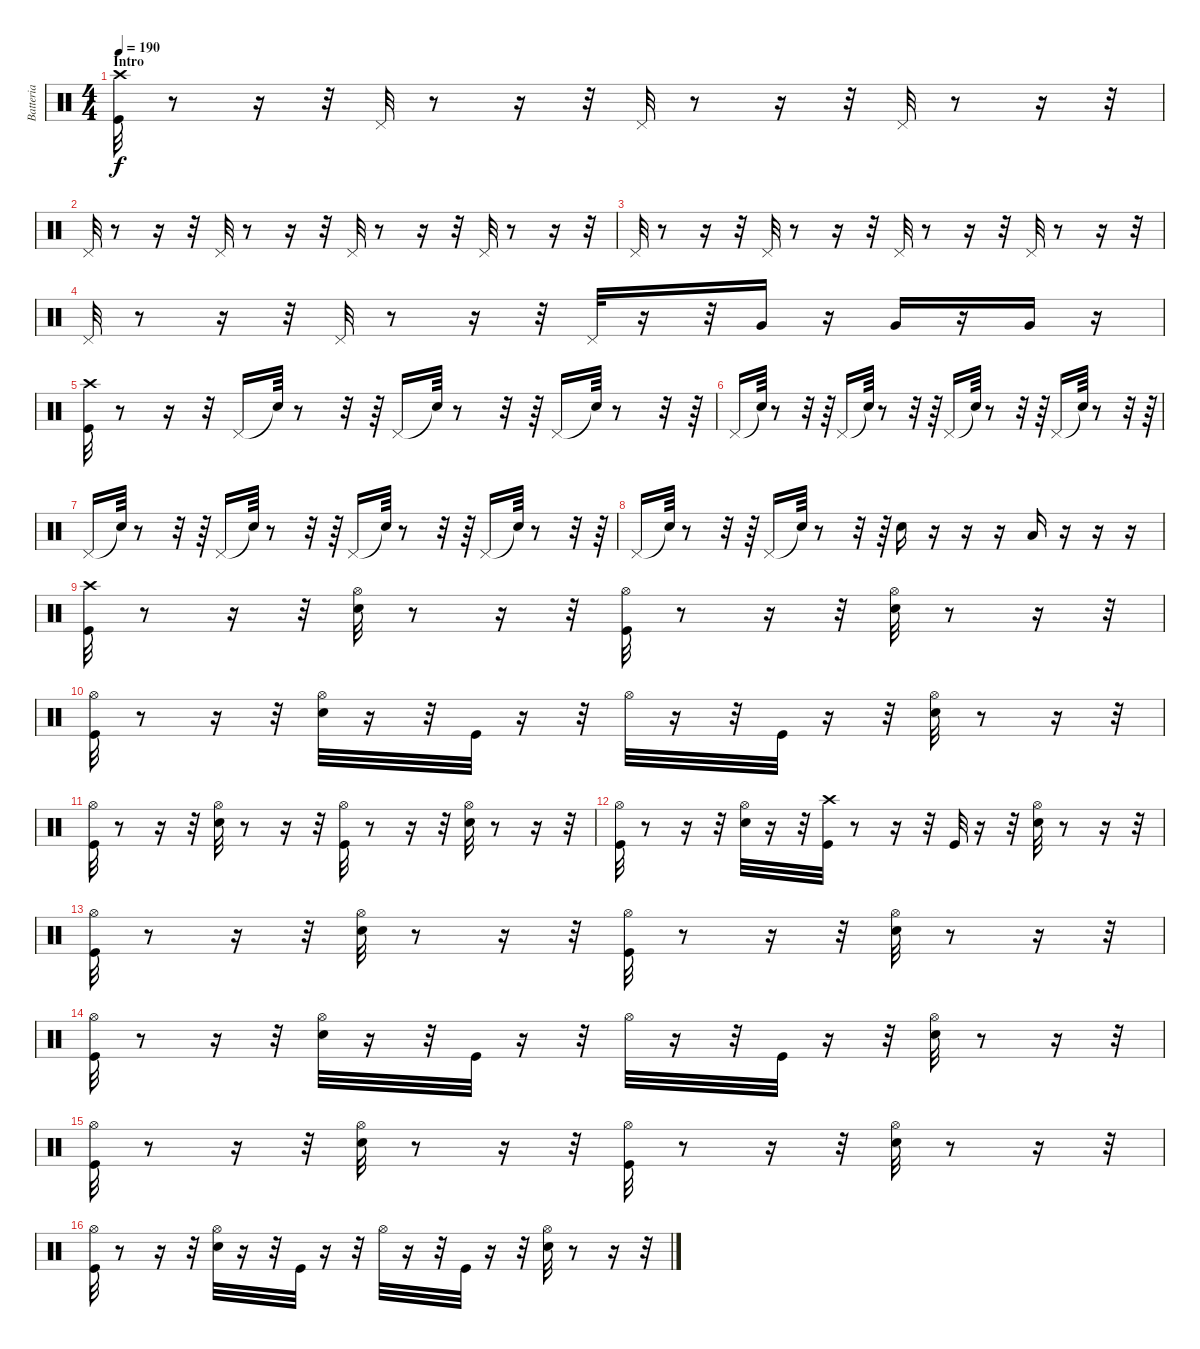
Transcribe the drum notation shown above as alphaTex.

\track ("Batteria" "Batteria") {instrument percussion}
\staff {score}
\articulation defaults
\ts (4 4)
\section ("" "Intro")
\tempo 190
\clef neutral
\ks c
("Kick (hit)" "Crash high (hit)").32{dy f} r.8 r.16 r.32 "Pedal Hi-Hat (hit)".32 r.8 r.16 r.32 "Pedal Hi-Hat (hit)".32 r.8 r.16 r.32 "Pedal Hi-Hat (hit)".32 r.8 r.16 r.32 |
"Pedal Hi-Hat (hit)".32 r.8 r.16 r.32 "Pedal Hi-Hat (hit)".32 r.8 r.16 r.32 "Pedal Hi-Hat (hit)".32 r.8 r.16 r.32 "Pedal Hi-Hat (hit)".32 r.8 r.16 r.32 |
"Pedal Hi-Hat (hit)".32 r.8 r.16 r.32 "Pedal Hi-Hat (hit)".32 r.8 r.16 r.32 "Pedal Hi-Hat (hit)".32 r.8 r.16 r.32 "Pedal Hi-Hat (hit)".32 r.8 r.16 r.32 |
"Pedal Hi-Hat (hit)".32 r.8 r.16 r.32 "Pedal Hi-Hat (hit)".32 r.8 r.16 r.32 "Pedal Hi-Hat (hit)".32 r.16 r.32 "Very Low Tom (hit)".16 r.16 "Very Low Tom (hit)".16 r.16 "Very Low Tom (hit)".16 r.16 |
("Kick (hit)" "Crash high (hit)").32 r.8 r.16 r.32 "Pedal Hi-Hat (hit)".16 "Snare (hit)"{t}.64 r.8 r.32 r.64 "Pedal Hi-Hat (hit)".16 "Snare (hit)"{t}.64 r.8 r.32 r.64 "Pedal Hi-Hat (hit)".16 "Snare (hit)"{t}.64 r.8 r.32 r.64 |
"Pedal Hi-Hat (hit)".16 "Snare (hit)"{t}.64 r.8 r.32 r.64 "Pedal Hi-Hat (hit)".16 "Snare (hit)"{t}.64 r.8 r.32 r.64 "Pedal Hi-Hat (hit)".16 "Snare (hit)"{t}.64 r.8 r.32 r.64 "Pedal Hi-Hat (hit)".16 "Snare (hit)"{t}.64 r.8 r.32 r.64 |
"Pedal Hi-Hat (hit)".16 "Snare (hit)"{t}.64 r.8 r.32 r.64 "Pedal Hi-Hat (hit)".16 "Snare (hit)"{t}.64 r.8 r.32 r.64 "Pedal Hi-Hat (hit)".16 "Snare (hit)"{t}.64 r.8 r.32 r.64 "Pedal Hi-Hat (hit)".16 "Snare (hit)"{t}.64 r.8 r.32 r.64 |
"Pedal Hi-Hat (hit)".16 "Snare (hit)"{t}.64 r.8 r.32 r.64 "Pedal Hi-Hat (hit)".16 "Snare (hit)"{t}.64 r.8 r.32 r.64 "Snare (hit) 2".16 r.16 r.16 r.16 "Low Tom (hit)".16 r.16 r.16 r.16 |
("Kick (hit)" "Crash high (hit)").32 r.8 r.16 r.32 ("Snare (hit) 2" "Hi-Hat (open)").32 r.8 r.16 r.32 ("Hi-Hat (open)" "Kick (hit)").32 r.8 r.16 r.32 ("Snare (hit) 2" "Hi-Hat (open)").32 r.8 r.16 r.32 |
("Kick (hit)" "Hi-Hat (open)").32 r.8 r.16 r.32 ("Hi-Hat (open)" "Snare (hit) 2").32 r.16 r.32 "Kick (hit)".32 r.16 r.32 "Hi-Hat (open)".32 r.16 r.32 "Kick (hit)".32 r.16 r.32 ("Snare (hit) 2" "Hi-Hat (open)").32 r.8 r.16 r.32 |
("Hi-Hat (open)" "Kick (hit)").32 r.8 r.16 r.32 ("Snare (hit) 2" "Hi-Hat (open)").32 r.8 r.16 r.32 ("Kick (hit)" "Hi-Hat (open)").32 r.8 r.16 r.32 ("Snare (hit) 2" "Hi-Hat (open)").32 r.8 r.16 r.32 |
("Hi-Hat (open)" "Kick (hit)").32 r.8 r.16 r.32 ("Snare (hit) 2" "Hi-Hat (open)").32 r.16 r.32 ("Kick (hit)" "Crash high (hit)").32 r.8 r.16 r.32 "Kick (hit)".32 r.16 r.32 ("Hi-Hat (open)" "Snare (hit) 2").32 r.8 r.16 r.32 |
("Hi-Hat (open)" "Kick (hit)").32 r.8 r.16 r.32 ("Snare (hit) 2" "Hi-Hat (open)").32 r.8 r.16 r.32 ("Hi-Hat (open)" "Kick (hit)").32 r.8 r.16 r.32 ("Snare (hit) 2" "Hi-Hat (open)").32 r.8 r.16 r.32 |
("Kick (hit)" "Hi-Hat (open)").32 r.8 r.16 r.32 ("Snare (hit) 2" "Hi-Hat (open)").32 r.16 r.32 "Kick (hit)".32 r.16 r.32 "Hi-Hat (open)".32 r.16 r.32 "Kick (hit)".32 r.16 r.32 ("Snare (hit) 2" "Hi-Hat (open)").32 r.8 r.16 r.32 |
("Kick (hit)" "Hi-Hat (open)").32 r.8 r.16 r.32 ("Hi-Hat (open)" "Snare (hit) 2").32 r.8 r.16 r.32 ("Kick (hit)" "Hi-Hat (open)").32 r.8 r.16 r.32 ("Snare (hit) 2" "Hi-Hat (open)").32 r.8 r.16 r.32 |
("Hi-Hat (open)" "Kick (hit)").32 r.8 r.16 r.32 ("Snare (hit) 2" "Hi-Hat (open)").32 r.16 r.32 "Kick (hit)".32 r.16 r.32 "Hi-Hat (open)".32 r.16 r.32 "Kick (hit)".32 r.16 r.32 ("Hi-Hat (open)" "Snare (hit) 2").32 r.8 r.16 r.32
